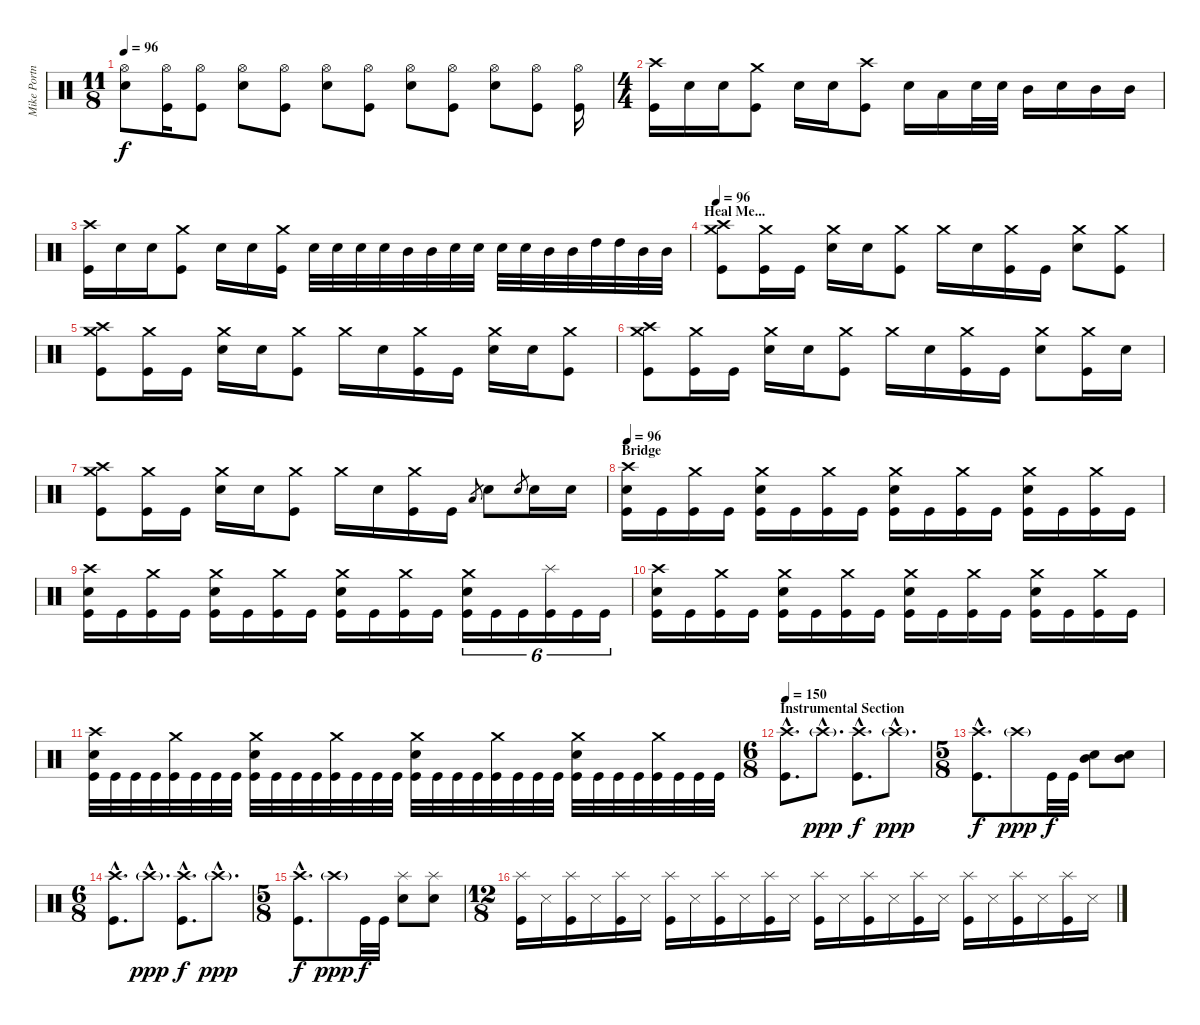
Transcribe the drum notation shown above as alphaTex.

\track ("Mike Portnoy" "Mike Portn") {instrument percussion}
\staff {score}
\articulation defaults
\ts (11 8)
\tempo 96
\clef neutral
\ks c
("Hi-Hat (open)" "Electric Snare (hit)").8{dy f} ("Hi-Hat (open)" "Kick (hit)").16 ("Hi-Hat (open)" "Kick (hit)").8 ("Hi-Hat (open)" "Electric Snare (hit)").8 ("Hi-Hat (open)" "Kick (hit)").8 ("Hi-Hat (open)" "Electric Snare (hit)").8 ("Hi-Hat (open)" "Kick (hit)").8 ("Hi-Hat (open)" "Electric Snare (hit)").8 ("Hi-Hat (open)" "Kick (hit)").8 ("Hi-Hat (open)" "Electric Snare (hit)").8 ("Hi-Hat (open)" "Kick (hit)").8 ("Hi-Hat (open)" "Kick (hit)").16 |
\ts (4 4)
("Crash high (hit)" "Kick (hit)").16 "Electric Snare (hit)".16 "Electric Snare (hit)".16 ("Crash medium (hit)" "Kick (hit)").8 "Electric Snare (hit)".16 "Electric Snare (hit)".16 ("Crash high (hit)" "Kick (hit)").8 "Electric Snare (hit)".16 "Low Tom (hit)".16 "Electric Snare (hit)".32 "Electric Snare (hit)".32 "Mid Tom (hit)".16 "Electric Snare (hit)".16 "Mid Tom (hit)".16 "Mid Tom (hit)".16 |
("Crash high (hit)" "Kick (hit)").16 "Electric Snare (hit)".16 "Electric Snare (hit)".16 ("Crash medium (hit)" "Kick (hit)").8 "Electric Snare (hit)".16 "Electric Snare (hit)".16 ("Crash medium (hit)" "Kick (hit)").16 "Electric Snare (hit)".32 "Electric Snare (hit)".32 "Electric Snare (hit)".32 "Electric Snare (hit)".32 "Mid Tom (hit)".32 "Mid Tom (hit)".32 "Electric Snare (hit)".32 "Electric Snare (hit)".32 "Electric Snare (hit)".32 "Electric Snare (hit)".32 "Mid Tom (hit)".32 "Mid Tom (hit)".32 "High Tom (hit)".32 "High Tom (hit)".32 "Mid Tom (hit)".32 "Mid Tom (hit)".32 |
\section ("" "Heal Me...")
\tempo 96
("Crash high (hit)" "Crash medium (hit)" "Kick (hit)").8 ("Crash medium (hit)" "Kick (hit)").16 "Kick (hit)".16 ("Crash medium (hit)" "Electric Snare (hit)").16 "Electric Snare (hit)".16 ("Crash medium (hit)" "Kick (hit)").8 "Crash medium (hit)".16 "Electric Snare (hit)".16 ("Crash medium (hit)" "Kick (hit)").16 "Kick (hit)".16 ("Crash medium (hit)" "Electric Snare (hit)").8 ("Crash medium (hit)" "Kick (hit)").8 |
("Crash high (hit)" "Crash medium (hit)" "Kick (hit)").8 ("Crash medium (hit)" "Kick (hit)").16 "Kick (hit)".16 ("Crash medium (hit)" "Electric Snare (hit)").16 "Electric Snare (hit)".16 ("Crash medium (hit)" "Kick (hit)").8 "Crash medium (hit)".16 "Electric Snare (hit)".16 ("Crash medium (hit)" "Kick (hit)").16 "Kick (hit)".16 ("Crash medium (hit)" "Electric Snare (hit)").16 "Electric Snare (hit)".16 ("Crash medium (hit)" "Kick (hit)").8 |
("Crash high (hit)" "Crash medium (hit)" "Kick (hit)").8 ("Crash medium (hit)" "Kick (hit)").16 "Kick (hit)".16 ("Crash medium (hit)" "Electric Snare (hit)").16 "Electric Snare (hit)".16 ("Crash medium (hit)" "Kick (hit)").8 "Crash medium (hit)".16 "Electric Snare (hit)".16 ("Crash medium (hit)" "Kick (hit)").16 "Kick (hit)".16 ("Crash medium (hit)" "Electric Snare (hit)").8 ("Crash medium (hit)" "Kick (hit)").16 "Electric Snare (hit)".16 |
("Crash high (hit)" "Crash medium (hit)" "Kick (hit)").8 ("Crash medium (hit)" "Kick (hit)").16 "Kick (hit)".16 ("Crash medium (hit)" "Electric Snare (hit)").16 "Electric Snare (hit)".16 ("Crash medium (hit)" "Kick (hit)").8 "Crash medium (hit)".16 "Electric Snare (hit)".16 ("Crash medium (hit)" "Kick (hit)").16 "Kick (hit)".16 "Low Tom (hit)".8{gr} "Electric Snare (hit)".8 "Electric Snare (hit)".8{gr} "Electric Snare (hit)".16 "Electric Snare (hit)".16 |
\section ("" "Bridge")
\tempo 96
("Crash high (hit)" "Electric Snare (hit)" "Kick (hit)").16 "Kick (hit)".16 ("Crash medium (hit)" "Kick (hit)").16 "Kick (hit)".16 ("Crash medium (hit)" "Electric Snare (hit)" "Kick (hit)").16 "Kick (hit)".16 ("Crash medium (hit)" "Kick (hit)").16 "Kick (hit)".16 ("Crash medium (hit)" "Electric Snare (hit)" "Kick (hit)").16 "Kick (hit)".16 ("Crash medium (hit)" "Kick (hit)").16 "Kick (hit)".16 ("Crash medium (hit)" "Electric Snare (hit)" "Kick (hit)").16 "Kick (hit)".16 ("Crash medium (hit)" "Kick (hit)").16 "Kick (hit)".16 |
("Crash high (hit)" "Electric Snare (hit)" "Kick (hit)").16 "Kick (hit)".16 ("Crash medium (hit)" "Kick (hit)").16 "Kick (hit)".16 ("Crash medium (hit)" "Electric Snare (hit)" "Kick (hit)").16 "Kick (hit)".16 ("Crash medium (hit)" "Kick (hit)").16 "Kick (hit)".16 ("Crash medium (hit)" "Electric Snare (hit)" "Kick (hit)").16 "Kick (hit)".16 ("Crash medium (hit)" "Kick (hit)").16 "Kick (hit)".16 ("Crash medium (hit)" "Electric Snare (hit)" "Kick (hit)").16{tu (6 4)} "Kick (hit)".16{tu (6 4)} "Kick (hit)".16{tu (6 4)} ("Splash (hit)" "Kick (hit)").16{tu (6 4)} "Kick (hit)".16{tu (6 4)} "Kick (hit)".16{tu (6 4)} |
("Crash high (hit)" "Electric Snare (hit)" "Kick (hit)").16 "Kick (hit)".16 ("Crash medium (hit)" "Kick (hit)").16 "Kick (hit)".16 ("Crash medium (hit)" "Electric Snare (hit)" "Kick (hit)").16 "Kick (hit)".16 ("Crash medium (hit)" "Kick (hit)").16 "Kick (hit)".16 ("Crash medium (hit)" "Electric Snare (hit)" "Kick (hit)").16 "Kick (hit)".16 ("Crash medium (hit)" "Kick (hit)").16 "Kick (hit)".16 ("Crash medium (hit)" "Electric Snare (hit)" "Kick (hit)").16 "Kick (hit)".16 ("Crash medium (hit)" "Kick (hit)").16 "Kick (hit)".16 |
("Crash high (hit)" "Electric Snare (hit)" "Kick (hit)").32 "Kick (hit)".32 "Kick (hit)".32 "Kick (hit)".32 ("Crash medium (hit)" "Kick (hit)").32 "Kick (hit)".32 "Kick (hit)".32 "Kick (hit)".32 ("Crash medium (hit)" "Electric Snare (hit)" "Kick (hit)").32 "Kick (hit)".32 "Kick (hit)".32 "Kick (hit)".32 ("Crash medium (hit)" "Kick (hit)").32 "Kick (hit)".32 "Kick (hit)".32 "Kick (hit)".32 ("Crash medium (hit)" "Electric Snare (hit)" "Kick (hit)").32 "Kick (hit)".32 "Kick (hit)".32 "Kick (hit)".32 ("Crash medium (hit)" "Kick (hit)").32 "Kick (hit)".32 "Kick (hit)".32 "Kick (hit)".32 ("Crash medium (hit)" "Electric Snare (hit)" "Kick (hit)").32 "Kick (hit)".32 "Kick (hit)".32 "Kick (hit)".32 ("Crash medium (hit)" "Kick (hit)").32 "Kick (hit)".32 "Kick (hit)".32 "Kick (hit)".32 |
\ts (6 8)
\section ("" "Instrumental Section")
\tempo 150
("Crash high (hit)"{hac} "Kick (hit)"{hac}).8{d} "Crash high (hit)"{g hac}.8{d dy ppp} ("Crash high (hit)"{hac} "Kick (hit)"{hac}).8{d dy f} "Crash high (hit)"{g hac}.8{d dy ppp} |
\ts (5 8)
("Crash high (hit)"{hac} "Kick (hit)"{hac}).8{d dy f} "Crash high (hit)"{g}.8{dy ppp} "Kick (hit)".32{dy f} "Kick (hit)".32 ("Mid Tom (hit)" "Electric Snare (hit)").8 ("Mid Tom (hit)" "Electric Snare (hit)").8 |
\ts (6 8)
("Crash high (hit)"{hac} "Kick (hit)"{hac}).8{d} "Crash high (hit)"{g hac}.8{d dy ppp} ("Crash high (hit)"{hac} "Kick (hit)"{hac}).8{d dy f} "Crash high (hit)"{g hac}.8{d dy ppp} |
\ts (5 8)
("Crash high (hit)"{hac} "Kick (hit)"{hac}).8{d dy f} "Crash high (hit)"{g}.8{dy ppp} "Kick (hit)".32{dy f} "Kick (hit)".32 ("Splash (hit)" "Electric Snare (hit)").8 ("Splash (hit)" "Electric Snare (hit)").8 |
\ts (12 8)
("Splash (hit)" "Kick (hit)").16 "Snare (side stick) 3".16 ("Splash (hit)" "Kick (hit)").16 "Snare (side stick) 3".16 ("Splash (hit)" "Kick (hit)").16 "Snare (side stick) 3".16 ("Splash (hit)" "Kick (hit)").16 "Snare (side stick) 3".16 ("Splash (hit)" "Kick (hit)").16 "Snare (side stick) 3".16 ("Splash (hit)" "Kick (hit)").16 "Snare (side stick) 3".16 ("Splash (hit)" "Kick (hit)").16 "Snare (side stick) 3".16 ("Splash (hit)" "Kick (hit)").16 "Snare (side stick) 3".16 ("Splash (hit)" "Kick (hit)").16 "Snare (side stick) 3".16 ("Splash (hit)" "Kick (hit)").16 "Snare (side stick) 3".16 ("Splash (hit)" "Kick (hit)").16 "Snare (side stick) 3".16 ("Splash (hit)" "Kick (hit)").16 "Snare (side stick) 3".16
